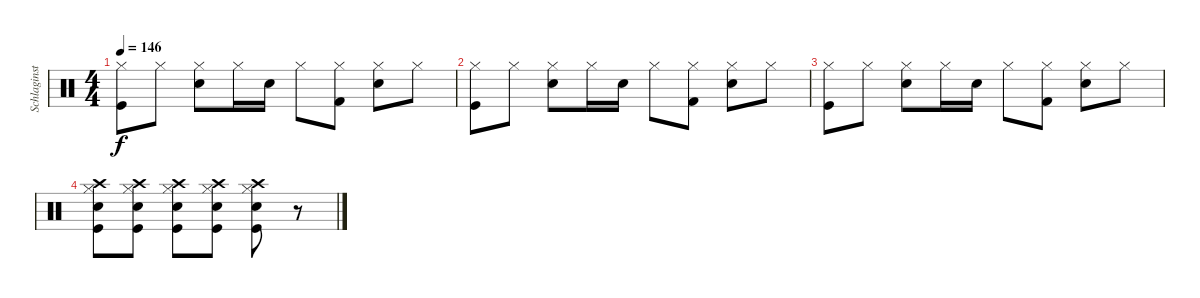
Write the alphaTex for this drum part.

\track ("Schlaginstrumente - Auswahl" "Schlaginst") {instrument percussion}
\staff {score}
\articulation defaults
\ts (4 4)
\tempo 146
\clef neutral
\ks c
("Hi-Hat (closed)" "Kick (hit)").8{dy f} "Hi-Hat (closed)".8 ("Hi-Hat (closed)" "Snare (hit) 2").8 "Hi-Hat (closed)".16 "Snare (hit) 2".16 "Hi-Hat (closed)".8 ("Hi-Hat (closed)" "Kick (hit) 2").8 ("Hi-Hat (closed)" "Snare (hit) 2").8 "Hi-Hat (closed)".8 |
("Hi-Hat (closed)" "Kick (hit)").8 "Hi-Hat (closed)".8 ("Hi-Hat (closed)" "Snare (hit) 2").8 "Hi-Hat (closed)".16 "Snare (hit) 2".16 "Hi-Hat (closed)".8 ("Hi-Hat (closed)" "Kick (hit) 2").8 ("Hi-Hat (closed)" "Snare (hit) 2").8 "Hi-Hat (closed)".8 |
("Hi-Hat (closed)" "Kick (hit)").8 "Hi-Hat (closed)".8 ("Hi-Hat (closed)" "Snare (hit) 2").8 "Hi-Hat (closed)".16 "Snare (hit) 2".16 "Hi-Hat (closed)".8 ("Hi-Hat (closed)" "Kick (hit) 2").8 ("Hi-Hat (closed)" "Snare (hit) 2").8 "Hi-Hat (closed)".8 |
("Crash high (hit)" "Hi-Hat (closed)" "Snare (hit) 2" "Kick (hit)").8 ("Crash high (hit)" "Hi-Hat (closed)" "Snare (hit) 2" "Kick (hit)").8 ("Crash high (hit)" "Hi-Hat (closed)" "Snare (hit) 2" "Kick (hit)").8 ("Crash high (hit)" "Hi-Hat (closed)" "Snare (hit) 2" "Kick (hit)").8 ("Crash high (hit)" "Hi-Hat (closed)" "Snare (hit) 2" "Kick (hit)").8 r.8
